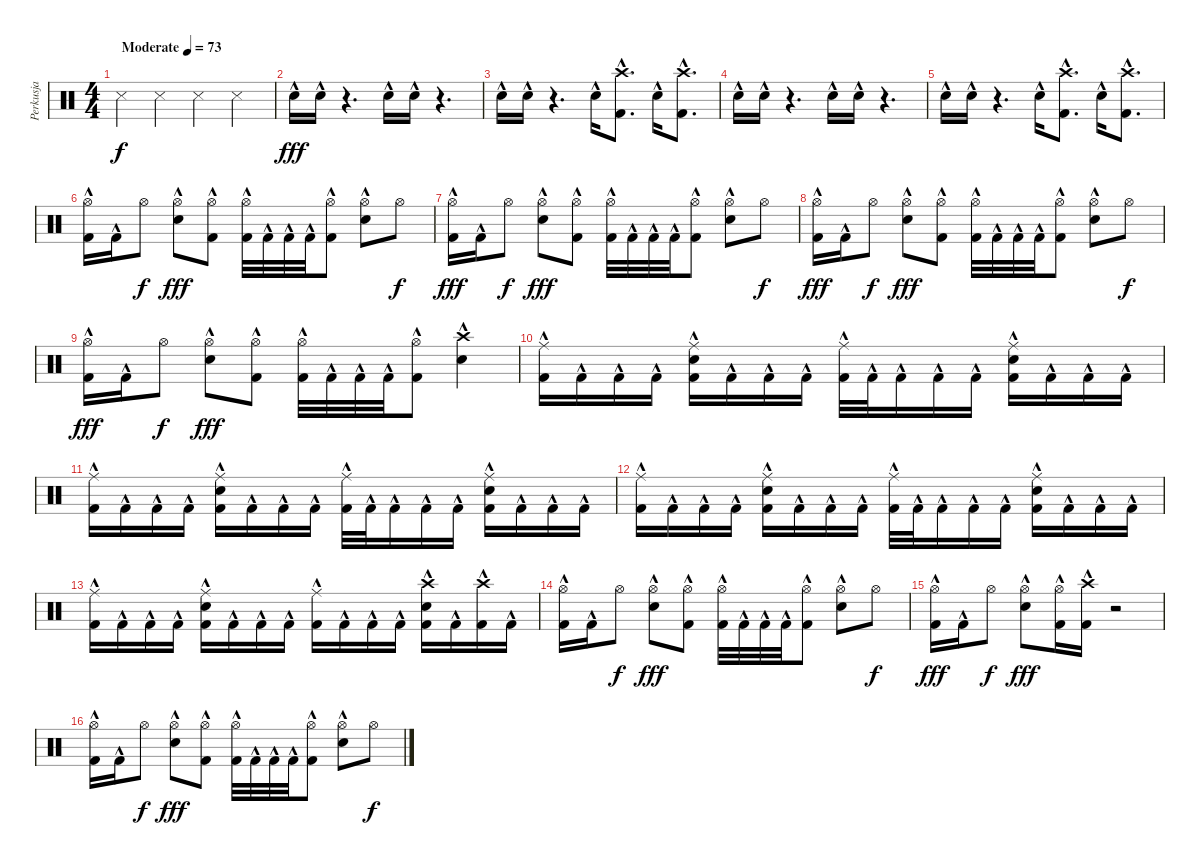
\track ("Perkusja" "Perkusja") {instrument percussion}
\staff {score}
\articulation defaults
\ts (4 4)
\tempo (73 "Moderate")
\clef neutral
\ks c "Snare (side stick) 3".4{dy f} "Snare (side stick) 3".4 "Snare (side stick) 3".4 "Snare (side stick) 3".4
|
"Electric Snare (hit)"{hac}.16{dy fff} "Electric Snare (hit)"{hac}.16 r.4{d} "Electric Snare (hit)"{hac}.16 "Electric Snare (hit)"{hac}.16 r.4{d} |
"Electric Snare (hit)"{hac}.16 "Electric Snare (hit)"{hac}.16 r.4{d} "Electric Snare (hit)"{hac}.16 ("Crash high (hit)" "Kick (hit) 2"{hac}).8{d} "Electric Snare (hit)"{hac}.16 ("Crash high (hit)" "Kick (hit) 2"{hac}).8{d} |
"Electric Snare (hit)"{hac}.16 "Electric Snare (hit)"{hac}.16 r.4{d} "Electric Snare (hit)"{hac}.16 "Electric Snare (hit)"{hac}.16 r.4{d} |
"Electric Snare (hit)"{hac}.16 "Electric Snare (hit)"{hac}.16 r.4{d} "Electric Snare (hit)"{hac}.16 ("Crash high (hit)" "Kick (hit) 2"{hac}).8{d} "Electric Snare (hit)"{hac}.16 ("Crash high (hit)" "Kick (hit) 2"{hac}).8{d} |
("Hi-Hat (open)" "Kick (hit) 2"{hac}).16 "Kick (hit) 2"{hac}.16 "Hi-Hat (open)".8{dy f} ("Hi-Hat (open)" "Electric Snare (hit)"{hac}).8{dy fff} ("Hi-Hat (open)" "Kick (hit) 2"{hac}).8 ("Hi-Hat (open)" "Kick (hit) 2"{hac}).32 "Kick (hit) 2"{hac}.32 "Kick (hit) 2"{hac}.32 "Kick (hit) 2"{hac}.32 ("Hi-Hat (open)" "Kick (hit) 2"{hac}).8 ("Hi-Hat (open)" "Electric Snare (hit)"{hac}).8 "Hi-Hat (open)".8{dy f} |
("Hi-Hat (open)" "Kick (hit) 2"{hac}).16{dy fff} "Kick (hit) 2"{hac}.16 "Hi-Hat (open)".8{dy f} ("Hi-Hat (open)" "Electric Snare (hit)"{hac}).8{dy fff} ("Hi-Hat (open)" "Kick (hit) 2"{hac}).8 ("Hi-Hat (open)" "Kick (hit) 2"{hac}).32 "Kick (hit) 2"{hac}.32 "Kick (hit) 2"{hac}.32 "Kick (hit) 2"{hac}.32 ("Hi-Hat (open)" "Kick (hit) 2"{hac}).8 ("Hi-Hat (open)" "Electric Snare (hit)"{hac}).8 "Hi-Hat (open)".8{dy f} |
("Hi-Hat (open)" "Kick (hit) 2"{hac}).16{dy fff} "Kick (hit) 2"{hac}.16 "Hi-Hat (open)".8{dy f} ("Hi-Hat (open)" "Electric Snare (hit)"{hac}).8{dy fff} ("Hi-Hat (open)" "Kick (hit) 2"{hac}).8 ("Hi-Hat (open)" "Kick (hit) 2"{hac}).32 "Kick (hit) 2"{hac}.32 "Kick (hit) 2"{hac}.32 "Kick (hit) 2"{hac}.32 ("Hi-Hat (open)" "Kick (hit) 2"{hac}).8 ("Hi-Hat (open)" "Electric Snare (hit)"{hac}).8 "Hi-Hat (open)".8{dy f} |
("Hi-Hat (open)" "Kick (hit) 2"{hac}).16{dy fff} "Kick (hit) 2"{hac}.16 "Hi-Hat (open)".8{dy f} ("Hi-Hat (open)" "Electric Snare (hit)"{hac}).8{dy fff} ("Hi-Hat (open)" "Kick (hit) 2"{hac}).8 ("Hi-Hat (open)" "Kick (hit) 2"{hac}).32 "Kick (hit) 2"{hac}.32 "Kick (hit) 2"{hac}.32 "Kick (hit) 2"{hac}.32 ("Hi-Hat (open)" "Kick (hit) 2"{hac}).8 ("Crash high (hit)" "Electric Snare (hit)"{hac}).4 |
("Ride (middle)" "Kick (hit) 2"{hac}).16 "Kick (hit) 2"{hac}.16 "Kick (hit) 2"{hac}.16 "Kick (hit) 2"{hac}.16 ("Ride (middle)" "Electric Snare (hit)"{hac} "Kick (hit) 2"{hac}).16 "Kick (hit) 2"{hac}.16 "Kick (hit) 2"{hac}.16 "Kick (hit) 2"{hac}.16 ("Ride (middle)" "Kick (hit) 2"{hac}).32 "Kick (hit) 2"{hac}.32 "Kick (hit) 2"{hac}.16 "Kick (hit) 2"{hac}.16 "Kick (hit) 2"{hac}.16 ("Ride (middle)" "Electric Snare (hit)"{hac} "Kick (hit) 2"{hac}).16 "Kick (hit) 2"{hac}.16 "Kick (hit) 2"{hac}.16 "Kick (hit) 2"{hac}.16 |
("Ride (middle)" "Kick (hit) 2"{hac}).16 "Kick (hit) 2"{hac}.16 "Kick (hit) 2"{hac}.16 "Kick (hit) 2"{hac}.16 ("Ride (middle)" "Electric Snare (hit)"{hac} "Kick (hit) 2"{hac}).16 "Kick (hit) 2"{hac}.16 "Kick (hit) 2"{hac}.16 "Kick (hit) 2"{hac}.16 ("Ride (middle)" "Kick (hit) 2"{hac}).32 "Kick (hit) 2"{hac}.32 "Kick (hit) 2"{hac}.16 "Kick (hit) 2"{hac}.16 "Kick (hit) 2"{hac}.16 ("Ride (middle)" "Electric Snare (hit)"{hac} "Kick (hit) 2"{hac}).16 "Kick (hit) 2"{hac}.16 "Kick (hit) 2"{hac}.16 "Kick (hit) 2"{hac}.16 |
("Ride (middle)" "Kick (hit) 2"{hac}).16 "Kick (hit) 2"{hac}.16 "Kick (hit) 2"{hac}.16 "Kick (hit) 2"{hac}.16 ("Ride (middle)" "Electric Snare (hit)"{hac} "Kick (hit) 2"{hac}).16 "Kick (hit) 2"{hac}.16 "Kick (hit) 2"{hac}.16 "Kick (hit) 2"{hac}.16 ("Ride (middle)" "Kick (hit) 2"{hac}).32 "Kick (hit) 2"{hac}.32 "Kick (hit) 2"{hac}.16 "Kick (hit) 2"{hac}.16 "Kick (hit) 2"{hac}.16 ("Ride (middle)" "Electric Snare (hit)"{hac} "Kick (hit) 2"{hac}).16 "Kick (hit) 2"{hac}.16 "Kick (hit) 2"{hac}.16 "Kick (hit) 2"{hac}.16 |
("Ride (middle)" "Kick (hit) 2"{hac}).16 "Kick (hit) 2"{hac}.16 "Kick (hit) 2"{hac}.16 "Kick (hit) 2"{hac}.16 ("Ride (middle)" "Electric Snare (hit)"{hac} "Kick (hit) 2"{hac}).16 "Kick (hit) 2"{hac}.16 "Kick (hit) 2"{hac}.16 "Kick (hit) 2"{hac}.16 ("Ride (middle)" "Kick (hit) 2"{hac}).16 "Kick (hit) 2"{hac}.16 "Kick (hit) 2"{hac}.16 "Kick (hit) 2"{hac}.16 ("Crash high (hit)" "Electric Snare (hit)"{hac} "Kick (hit) 2"{hac}).16 "Kick (hit) 2"{hac}.16 ("Crash high (hit)" "Kick (hit) 2"{hac}).16 "Kick (hit) 2"{hac}.16 |
("Hi-Hat (open)" "Kick (hit) 2"{hac}).16 "Kick (hit) 2"{hac}.16 "Hi-Hat (open)".8{dy f} ("Hi-Hat (open)" "Electric Snare (hit)"{hac}).8{dy fff} ("Hi-Hat (open)" "Kick (hit) 2"{hac}).8 ("Hi-Hat (open)" "Kick (hit) 2"{hac}).32 "Kick (hit) 2"{hac}.32 "Kick (hit) 2"{hac}.32 "Kick (hit) 2"{hac}.32 ("Hi-Hat (open)" "Kick (hit) 2"{hac}).8 ("Hi-Hat (open)" "Electric Snare (hit)"{hac}).8 "Hi-Hat (open)".8{dy f} |
("Hi-Hat (open)" "Kick (hit) 2"{hac}).16{dy fff} "Kick (hit) 2"{hac}.16 "Hi-Hat (open)".8{dy f} ("Hi-Hat (open)" "Electric Snare (hit)"{hac}).8{dy fff} ("Hi-Hat (open)" "Kick (hit) 2"{hac}).16 ("Crash high (hit)" "Kick (hit) 2"{hac}).16 r.2 |
("Hi-Hat (open)" "Kick (hit) 2"{hac}).16 "Kick (hit) 2"{hac}.16 "Hi-Hat (open)".8{dy f} ("Hi-Hat (open)" "Electric Snare (hit)"{hac}).8{dy fff} ("Hi-Hat (open)" "Kick (hit) 2"{hac}).8 ("Hi-Hat (open)" "Kick (hit) 2"{hac}).32 "Kick (hit) 2"{hac}.32 "Kick (hit) 2"{hac}.32 "Kick (hit) 2"{hac}.32 ("Hi-Hat (open)" "Kick (hit) 2"{hac}).8 ("Hi-Hat (open)" "Electric Snare (hit)"{hac}).8 "Hi-Hat (open)".8{dy f}
